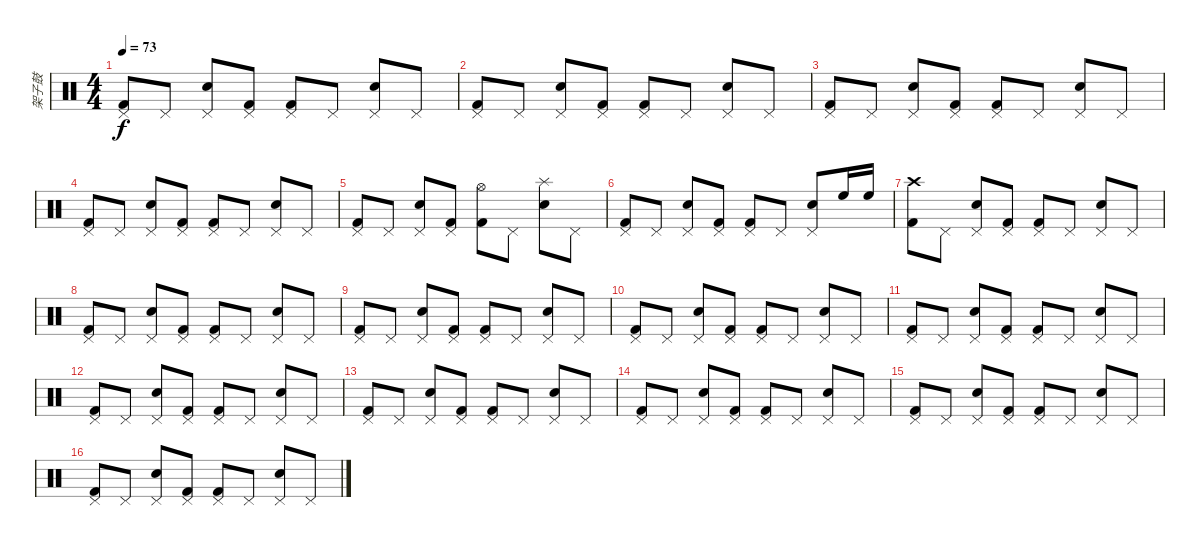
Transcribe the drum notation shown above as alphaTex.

\track ("架子鼓" "架子鼓") {instrument percussion}
\staff {score}
\articulation defaults
\ts (4 4)
\tempo 73
\clef neutral
\ks c
("Pedal Hi-Hat (hit)" "Kick (hit) 2").8{dy f} "Pedal Hi-Hat (hit)".8 ("Pedal Hi-Hat (hit)" "Electric Snare (hit)").8 ("Pedal Hi-Hat (hit)" "Kick (hit) 2").8 ("Pedal Hi-Hat (hit)" "Kick (hit) 2").8 "Pedal Hi-Hat (hit)".8 ("Pedal Hi-Hat (hit)" "Electric Snare (hit)").8 "Pedal Hi-Hat (hit)".8 |
("Pedal Hi-Hat (hit)" "Kick (hit) 2").8 "Pedal Hi-Hat (hit)".8 ("Pedal Hi-Hat (hit)" "Electric Snare (hit)").8 ("Pedal Hi-Hat (hit)" "Kick (hit) 2").8 ("Pedal Hi-Hat (hit)" "Kick (hit) 2").8 "Pedal Hi-Hat (hit)".8 ("Pedal Hi-Hat (hit)" "Electric Snare (hit)").8 "Pedal Hi-Hat (hit)".8 |
("Pedal Hi-Hat (hit)" "Kick (hit) 2").8 "Pedal Hi-Hat (hit)".8 ("Pedal Hi-Hat (hit)" "Electric Snare (hit)").8 ("Pedal Hi-Hat (hit)" "Kick (hit) 2").8 ("Pedal Hi-Hat (hit)" "Kick (hit) 2").8 "Pedal Hi-Hat (hit)".8 ("Pedal Hi-Hat (hit)" "Electric Snare (hit)").8 "Pedal Hi-Hat (hit)".8 |
("Pedal Hi-Hat (hit)" "Kick (hit) 2").8 "Pedal Hi-Hat (hit)".8 ("Pedal Hi-Hat (hit)" "Electric Snare (hit)").8 ("Pedal Hi-Hat (hit)" "Kick (hit) 2").8 ("Pedal Hi-Hat (hit)" "Kick (hit) 2").8 "Pedal Hi-Hat (hit)".8 ("Pedal Hi-Hat (hit)" "Electric Snare (hit)").8 "Pedal Hi-Hat (hit)".8 |
("Pedal Hi-Hat (hit)" "Kick (hit) 2").8 "Pedal Hi-Hat (hit)".8 ("Pedal Hi-Hat (hit)" "Electric Snare (hit)").8 ("Pedal Hi-Hat (hit)" "Kick (hit) 2").8 ("Hi-Hat (open)" "Kick (hit) 2").8 "Pedal Hi-Hat (hit)".8 ("Splash (hit)" "Electric Snare (hit)").8 "Pedal Hi-Hat (hit)".8 |
("Pedal Hi-Hat (hit)" "Kick (hit) 2").8 "Pedal Hi-Hat (hit)".8 ("Pedal Hi-Hat (hit)" "Electric Snare (hit)").8 ("Pedal Hi-Hat (hit)" "Kick (hit) 2").8 ("Pedal Hi-Hat (hit)" "Kick (hit) 2").8 "Pedal Hi-Hat (hit)".8 ("Pedal Hi-Hat (hit)" "Electric Snare (hit)").8 "High Floor Tom (hit)".16{volume 16 balance 0} "High Floor Tom (hit)".16 |
("Crash high (hit)" "Kick (hit) 2").8{volume 14 balance 8} "Pedal Hi-Hat (hit)".8 ("Pedal Hi-Hat (hit)" "Electric Snare (hit)").8 ("Pedal Hi-Hat (hit)" "Kick (hit) 2").8 ("Pedal Hi-Hat (hit)" "Kick (hit) 2").8 "Pedal Hi-Hat (hit)".8 ("Pedal Hi-Hat (hit)" "Electric Snare (hit)").8 "Pedal Hi-Hat (hit)".8 |
("Pedal Hi-Hat (hit)" "Kick (hit) 2").8 "Pedal Hi-Hat (hit)".8 ("Pedal Hi-Hat (hit)" "Electric Snare (hit)").8 ("Pedal Hi-Hat (hit)" "Kick (hit) 2").8 ("Pedal Hi-Hat (hit)" "Kick (hit) 2").8 "Pedal Hi-Hat (hit)".8 ("Pedal Hi-Hat (hit)" "Electric Snare (hit)").8 "Pedal Hi-Hat (hit)".8 |
("Pedal Hi-Hat (hit)" "Kick (hit) 2").8 "Pedal Hi-Hat (hit)".8 ("Pedal Hi-Hat (hit)" "Electric Snare (hit)").8 ("Pedal Hi-Hat (hit)" "Kick (hit) 2").8 ("Pedal Hi-Hat (hit)" "Kick (hit) 2").8 "Pedal Hi-Hat (hit)".8 ("Pedal Hi-Hat (hit)" "Electric Snare (hit)").8 "Pedal Hi-Hat (hit)".8 |
("Pedal Hi-Hat (hit)" "Kick (hit) 2").8 "Pedal Hi-Hat (hit)".8 ("Pedal Hi-Hat (hit)" "Electric Snare (hit)").8 ("Pedal Hi-Hat (hit)" "Kick (hit) 2").8 ("Pedal Hi-Hat (hit)" "Kick (hit) 2").8 "Pedal Hi-Hat (hit)".8 ("Pedal Hi-Hat (hit)" "Electric Snare (hit)").8 "Pedal Hi-Hat (hit)".8 |
("Pedal Hi-Hat (hit)" "Kick (hit) 2").8 "Pedal Hi-Hat (hit)".8 ("Pedal Hi-Hat (hit)" "Electric Snare (hit)").8 ("Pedal Hi-Hat (hit)" "Kick (hit) 2").8 ("Pedal Hi-Hat (hit)" "Kick (hit) 2").8 "Pedal Hi-Hat (hit)".8 ("Pedal Hi-Hat (hit)" "Electric Snare (hit)").8 "Pedal Hi-Hat (hit)".8 |
("Pedal Hi-Hat (hit)" "Kick (hit) 2").8 "Pedal Hi-Hat (hit)".8 ("Pedal Hi-Hat (hit)" "Electric Snare (hit)").8 ("Pedal Hi-Hat (hit)" "Kick (hit) 2").8 ("Pedal Hi-Hat (hit)" "Kick (hit) 2").8 "Pedal Hi-Hat (hit)".8 ("Pedal Hi-Hat (hit)" "Electric Snare (hit)").8 "Pedal Hi-Hat (hit)".8 |
("Pedal Hi-Hat (hit)" "Kick (hit) 2").8 "Pedal Hi-Hat (hit)".8 ("Pedal Hi-Hat (hit)" "Electric Snare (hit)").8 ("Pedal Hi-Hat (hit)" "Kick (hit) 2").8 ("Pedal Hi-Hat (hit)" "Kick (hit) 2").8 "Pedal Hi-Hat (hit)".8 ("Pedal Hi-Hat (hit)" "Electric Snare (hit)").8 "Pedal Hi-Hat (hit)".8 |
("Pedal Hi-Hat (hit)" "Kick (hit) 2").8 "Pedal Hi-Hat (hit)".8 ("Pedal Hi-Hat (hit)" "Electric Snare (hit)").8 ("Pedal Hi-Hat (hit)" "Kick (hit) 2").8 ("Pedal Hi-Hat (hit)" "Kick (hit) 2").8 "Pedal Hi-Hat (hit)".8 ("Pedal Hi-Hat (hit)" "Electric Snare (hit)").8 "Pedal Hi-Hat (hit)".8 |
("Pedal Hi-Hat (hit)" "Kick (hit) 2").8 "Pedal Hi-Hat (hit)".8 ("Pedal Hi-Hat (hit)" "Electric Snare (hit)").8 ("Pedal Hi-Hat (hit)" "Kick (hit) 2").8 ("Pedal Hi-Hat (hit)" "Kick (hit) 2").8 "Pedal Hi-Hat (hit)".8 ("Pedal Hi-Hat (hit)" "Electric Snare (hit)").8 "Pedal Hi-Hat (hit)".8 |
("Pedal Hi-Hat (hit)" "Kick (hit) 2").8 "Pedal Hi-Hat (hit)".8 ("Pedal Hi-Hat (hit)" "Electric Snare (hit)").8 ("Pedal Hi-Hat (hit)" "Kick (hit) 2").8 ("Pedal Hi-Hat (hit)" "Kick (hit) 2").8 "Pedal Hi-Hat (hit)".8 ("Pedal Hi-Hat (hit)" "Electric Snare (hit)").8 "Pedal Hi-Hat (hit)".8
